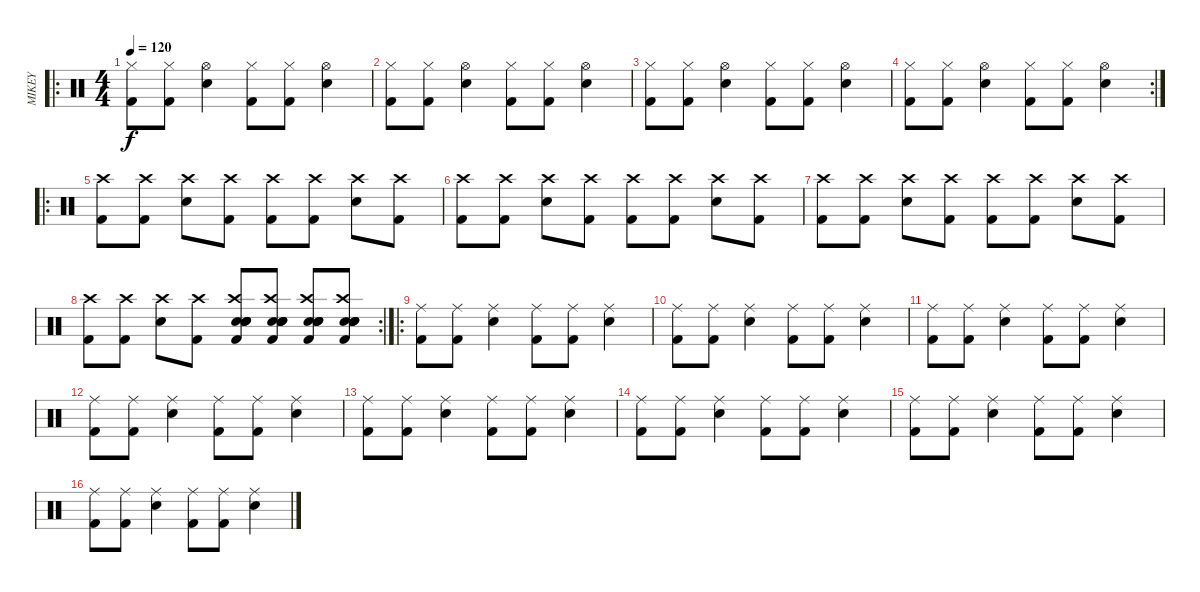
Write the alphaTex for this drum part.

\track ("MIKEY" "MIKEY") {instrument percussion}
\staff {score}
\articulation defaults
\ro
\ts (4 4)
\tempo 120
\clef neutral
\ks c
("Hi-Hat (closed)" "Kick (hit) 2").8{dy f} ("Hi-Hat (closed)" "Kick (hit) 2").8 ("Hi-Hat (open)" "Snare (hit) 2").4 ("Hi-Hat (closed)" "Kick (hit) 2").8 ("Hi-Hat (closed)" "Kick (hit) 2").8 ("Hi-Hat (open)" "Snare (hit) 2").4 |
("Hi-Hat (closed)" "Kick (hit) 2").8 ("Hi-Hat (closed)" "Kick (hit) 2").8 ("Hi-Hat (open)" "Snare (hit) 2").4 ("Hi-Hat (closed)" "Kick (hit) 2").8 ("Hi-Hat (closed)" "Kick (hit) 2").8 ("Hi-Hat (open)" "Snare (hit) 2").4 |
("Hi-Hat (closed)" "Kick (hit) 2").8 ("Hi-Hat (closed)" "Kick (hit) 2").8 ("Hi-Hat (open)" "Snare (hit) 2").4 ("Hi-Hat (closed)" "Kick (hit) 2").8 ("Hi-Hat (closed)" "Kick (hit) 2").8 ("Hi-Hat (open)" "Snare (hit) 2").4 |
\rc 2
("Hi-Hat (closed)" "Kick (hit) 2").8 ("Hi-Hat (closed)" "Kick (hit) 2").8 ("Hi-Hat (open)" "Snare (hit) 2").4 ("Hi-Hat (closed)" "Kick (hit) 2").8 ("Hi-Hat (closed)" "Kick (hit) 2").8 ("Hi-Hat (open)" "Snare (hit) 2").4 |
\ro
("Crash high (hit)" "Kick (hit) 2").8 ("Crash high (hit)" "Kick (hit) 2").8 ("Crash high (hit)" "Snare (hit) 2").8 ("Crash high (hit)" "Kick (hit) 2").8 ("Crash high (hit)" "Kick (hit) 2").8 ("Crash high (hit)" "Kick (hit) 2").8 ("Crash high (hit)" "Snare (hit) 2").8 ("Crash high (hit)" "Kick (hit) 2").8 |
("Crash high (hit)" "Kick (hit) 2").8 ("Crash high (hit)" "Kick (hit) 2").8 ("Crash high (hit)" "Snare (hit) 2").8 ("Crash high (hit)" "Kick (hit) 2").8 ("Crash high (hit)" "Kick (hit) 2").8 ("Crash high (hit)" "Kick (hit) 2").8 ("Crash high (hit)" "Snare (hit) 2").8 ("Crash high (hit)" "Kick (hit) 2").8 |
("Crash high (hit)" "Kick (hit) 2").8 ("Crash high (hit)" "Kick (hit) 2").8 ("Crash high (hit)" "Snare (hit) 2").8 ("Crash high (hit)" "Kick (hit) 2").8 ("Crash high (hit)" "Kick (hit) 2").8 ("Crash high (hit)" "Kick (hit) 2").8 ("Crash high (hit)" "Snare (hit) 2").8 ("Crash high (hit)" "Kick (hit) 2").8 |
\rc 2
("Crash high (hit)" "Kick (hit) 2").8 ("Crash high (hit)" "Kick (hit) 2").8 ("Crash high (hit)" "Snare (hit) 2").8 ("Crash high (hit)" "Kick (hit) 2").8 ("Electric Snare (hit)" "Snare (hit) 2" "Kick (hit) 2" "Electric Snare (hit)" "Crash high (hit)" "Electric Snare (hit)").8 ("Electric Snare (hit)" "Snare (hit) 2" "Kick (hit) 2" "Electric Snare (hit)" "Crash high (hit)" "Electric Snare (hit)").8 ("Electric Snare (hit)" "Snare (hit) 2" "Kick (hit) 2" "Electric Snare (hit)" "Crash high (hit)" "Electric Snare (hit)").8 ("Electric Snare (hit)" "Snare (hit) 2" "Kick (hit) 2" "Electric Snare (hit)" "Crash high (hit)" "Electric Snare (hit)").8 |
\ro
("Ride (middle)" "Kick (hit) 2").8 ("Ride (middle)" "Kick (hit) 2").8 ("Ride (middle)" "Snare (hit) 2").4 ("Ride (middle)" "Kick (hit) 2").8 ("Ride (middle)" "Kick (hit) 2").8 ("Ride (middle)" "Snare (hit) 2").4 |
("Ride (middle)" "Kick (hit) 2").8 ("Ride (middle)" "Kick (hit) 2").8 ("Ride (middle)" "Snare (hit) 2").4 ("Ride (middle)" "Kick (hit) 2").8 ("Ride (middle)" "Kick (hit) 2").8 ("Ride (middle)" "Snare (hit) 2").4 |
("Ride (middle)" "Kick (hit) 2").8 ("Ride (middle)" "Kick (hit) 2").8 ("Ride (middle)" "Snare (hit) 2").4 ("Ride (middle)" "Kick (hit) 2").8 ("Ride (middle)" "Kick (hit) 2").8 ("Ride (middle)" "Snare (hit) 2").4 |
("Ride (middle)" "Kick (hit) 2").8 ("Ride (middle)" "Kick (hit) 2").8 ("Ride (middle)" "Snare (hit) 2").4 ("Ride (middle)" "Kick (hit) 2").8 ("Ride (middle)" "Kick (hit) 2").8 ("Ride (middle)" "Snare (hit) 2").4 |
("Ride (middle)" "Kick (hit) 2").8 ("Ride (middle)" "Kick (hit) 2").8 ("Ride (middle)" "Snare (hit) 2").4 ("Ride (middle)" "Kick (hit) 2").8 ("Ride (middle)" "Kick (hit) 2").8 ("Ride (middle)" "Snare (hit) 2").4 |
("Ride (middle)" "Kick (hit) 2").8 ("Ride (middle)" "Kick (hit) 2").8 ("Ride (middle)" "Snare (hit) 2").4 ("Ride (middle)" "Kick (hit) 2").8 ("Ride (middle)" "Kick (hit) 2").8 ("Ride (middle)" "Snare (hit) 2").4 |
("Ride (middle)" "Kick (hit) 2").8 ("Ride (middle)" "Kick (hit) 2").8 ("Ride (middle)" "Snare (hit) 2").4 ("Ride (middle)" "Kick (hit) 2").8 ("Ride (middle)" "Kick (hit) 2").8 ("Ride (middle)" "Snare (hit) 2").4 |
("Ride (middle)" "Kick (hit) 2").8 ("Ride (middle)" "Kick (hit) 2").8 ("Ride (middle)" "Snare (hit) 2").4 ("Ride (middle)" "Kick (hit) 2").8 ("Ride (middle)" "Kick (hit) 2").8 ("Ride (middle)" "Snare (hit) 2").4
